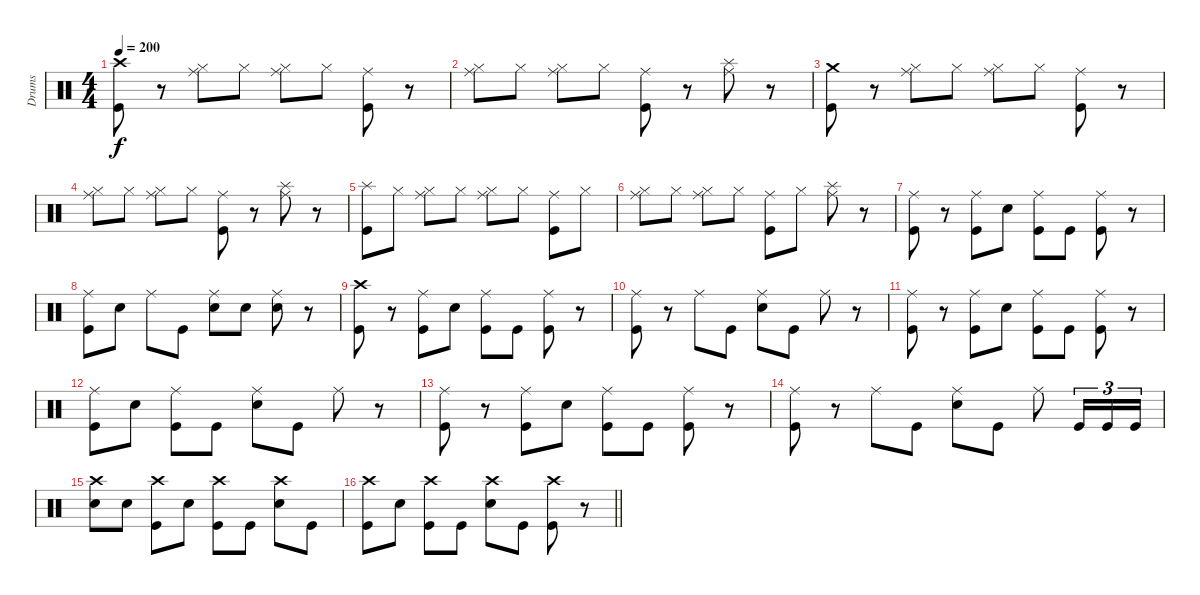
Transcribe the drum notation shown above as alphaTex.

\track ("Drums" "Drums") {instrument percussion}
\staff {score}
\articulation defaults
\ts (4 4)
\tempo 200
\clef neutral
\ks c
("Crash high (hit)" "Kick (hit)").8{dy f} r.8 ("Hi-Hat (closed)" "Ride (middle)").8 "Hi-Hat (closed)".8 ("Hi-Hat (closed)" "Ride (middle)").8 "Hi-Hat (closed)".8 ("Ride (middle)" "Kick (hit)").8 r.8 |
("Hi-Hat (closed)" "Ride (middle)").8 "Hi-Hat (closed)".8 ("Hi-Hat (closed)" "Ride (middle)").8 "Hi-Hat (closed)".8 ("Ride (middle)" "Kick (hit)").8 r.8 ("Splash (hit)" "Ride (middle)").8 r.8 |
("Crash medium (hit)" "Kick (hit)").8 r.8 ("Hi-Hat (closed)" "Ride (middle)").8 "Hi-Hat (closed)".8 ("Hi-Hat (closed)" "Ride (middle)").8 "Hi-Hat (closed)".8 ("Ride (middle)" "Kick (hit)").8 r.8 |
("Hi-Hat (closed)" "Ride (middle)").8 "Hi-Hat (closed)".8 ("Hi-Hat (closed)" "Ride (middle)").8 "Hi-Hat (closed)".8 ("Ride (middle)" "Kick (hit)").8 r.8 ("Splash (hit)" "Ride (middle)").8 r.8 |
("Splash (hit)" "Kick (hit)").8 "Hi-Hat (closed)".8 ("Hi-Hat (closed)" "Ride (middle)").8 "Hi-Hat (closed)".8 ("Hi-Hat (closed)" "Ride (middle)").8 "Hi-Hat (closed)".8 ("Ride (middle)" "Kick (hit)").8 "Hi-Hat (closed)".8 |
("Hi-Hat (closed)" "Ride (middle)").8 "Hi-Hat (closed)".8 ("Hi-Hat (closed)" "Ride (middle)").8 "Hi-Hat (closed)".8 ("Ride (middle)" "Kick (hit)").8 "Hi-Hat (closed)".8 ("Splash (hit)" "Ride (middle)").8 r.8 |
("Ride (middle)" "Kick (hit)").8 r.8 ("Ride (middle)" "Kick (hit)").8 "Electric Snare (hit)".8 ("Ride (middle)" "Kick (hit)").8 "Kick (hit)".8 ("Ride (middle)" "Kick (hit)").8 r.8 |
("Ride (middle)" "Kick (hit)").8 "Electric Snare (hit)".8 "Ride (middle)".8 "Kick (hit)".8 ("Ride (middle)" "Electric Snare (hit)").8 "Electric Snare (hit)".8 ("Ride (middle)" "Electric Snare (hit)").8 r.8 |
("Crash high (hit)" "Kick (hit)").8 r.8 ("Ride (middle)" "Kick (hit)").8 "Electric Snare (hit)".8 ("Ride (middle)" "Kick (hit)").8 "Kick (hit)".8 ("Ride (middle)" "Kick (hit)").8 r.8 |
("Ride (middle)" "Kick (hit)").8 r.8 "Ride (middle)".8 "Kick (hit)".8 ("Ride (middle)" "Electric Snare (hit)").8 "Kick (hit)".8 "Ride (middle)".8 r.8 |
("Ride (middle)" "Kick (hit)").8 r.8 ("Ride (middle)" "Kick (hit)").8 "Electric Snare (hit)".8 ("Ride (middle)" "Kick (hit)").8 "Kick (hit)".8 ("Ride (middle)" "Kick (hit)").8 r.8 |
("Ride (middle)" "Kick (hit)").8 "Electric Snare (hit)".8 ("Ride (middle)" "Kick (hit)").8 "Kick (hit)".8 ("Ride (middle)" "Electric Snare (hit)").8 "Kick (hit)".8 "Ride (middle)".8 r.8 |
("Ride (middle)" "Kick (hit)").8 r.8 ("Ride (middle)" "Kick (hit)").8 "Electric Snare (hit)".8 ("Ride (middle)" "Kick (hit)").8 "Kick (hit)".8 ("Ride (middle)" "Kick (hit)").8 r.8 |
("Ride (middle)" "Kick (hit)").8 r.8 "Ride (middle)".8 "Kick (hit)".8 ("Ride (middle)" "Electric Snare (hit)").8 "Kick (hit)".8 "Ride (middle)".8 "Kick (hit)".16{tu (3 2)} "Kick (hit)".16{tu (3 2)} "Kick (hit)".16{tu (3 2)} |
("Crash high (hit)" "Electric Snare (hit)").8 "Electric Snare (hit)".8 ("Crash high (hit)" "Kick (hit)").8 "Electric Snare (hit)".8 ("Crash high (hit)" "Kick (hit)").8 "Kick (hit)".8 ("Crash high (hit)" "Electric Snare (hit)").8 "Kick (hit)".8 |
\barLineRight lightlight
("Crash high (hit)" "Kick (hit)").8 "Electric Snare (hit)".8 ("Crash high (hit)" "Kick (hit)").8 "Kick (hit)".8 ("Crash high (hit)" "Electric Snare (hit)").8 "Kick (hit)".8 ("Crash high (hit)" "Kick (hit)").8 r.8
